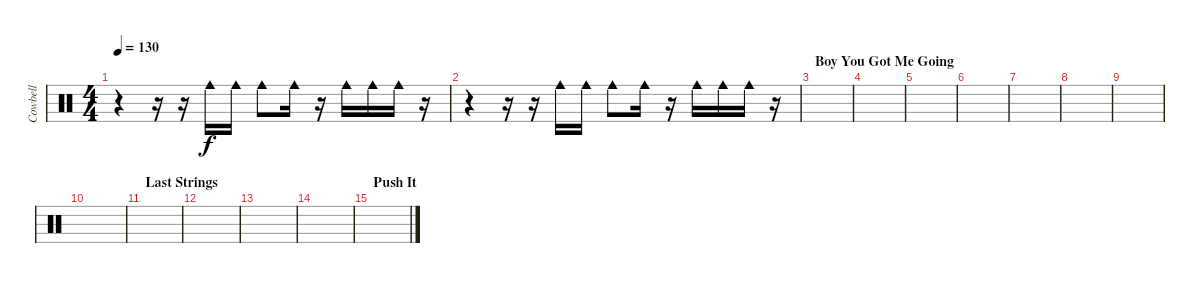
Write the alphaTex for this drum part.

\track ("Cowbell" "Cowbell") {instrument percussion}
\staff {score}
\articulation defaults
\ts (4 4)
\tempo 130
\clef neutral
\ks c
r.4{dy f} r.16 r.16 "Cowbell medium (hit)".16 "Cowbell medium (hit)".16 "Cowbell medium (hit)".8 "Cowbell medium (hit)".16 r.16 "Cowbell medium (hit)".16 "Cowbell medium (hit)".16 "Cowbell medium (hit)".16 r.16 |
r.4 r.16 r.16 "Cowbell medium (hit)".16 "Cowbell medium (hit)".16 "Cowbell medium (hit)".8 "Cowbell medium (hit)".16 r.16 "Cowbell medium (hit)".16 "Cowbell medium (hit)".16 "Cowbell medium (hit)".16 r.16 |
\section ("" "Boy You Got Me Going")
|
|
|
|
|
|
|
|
\section ("" "Last Strings")
|
|
|
|
\section ("" "Push It")
